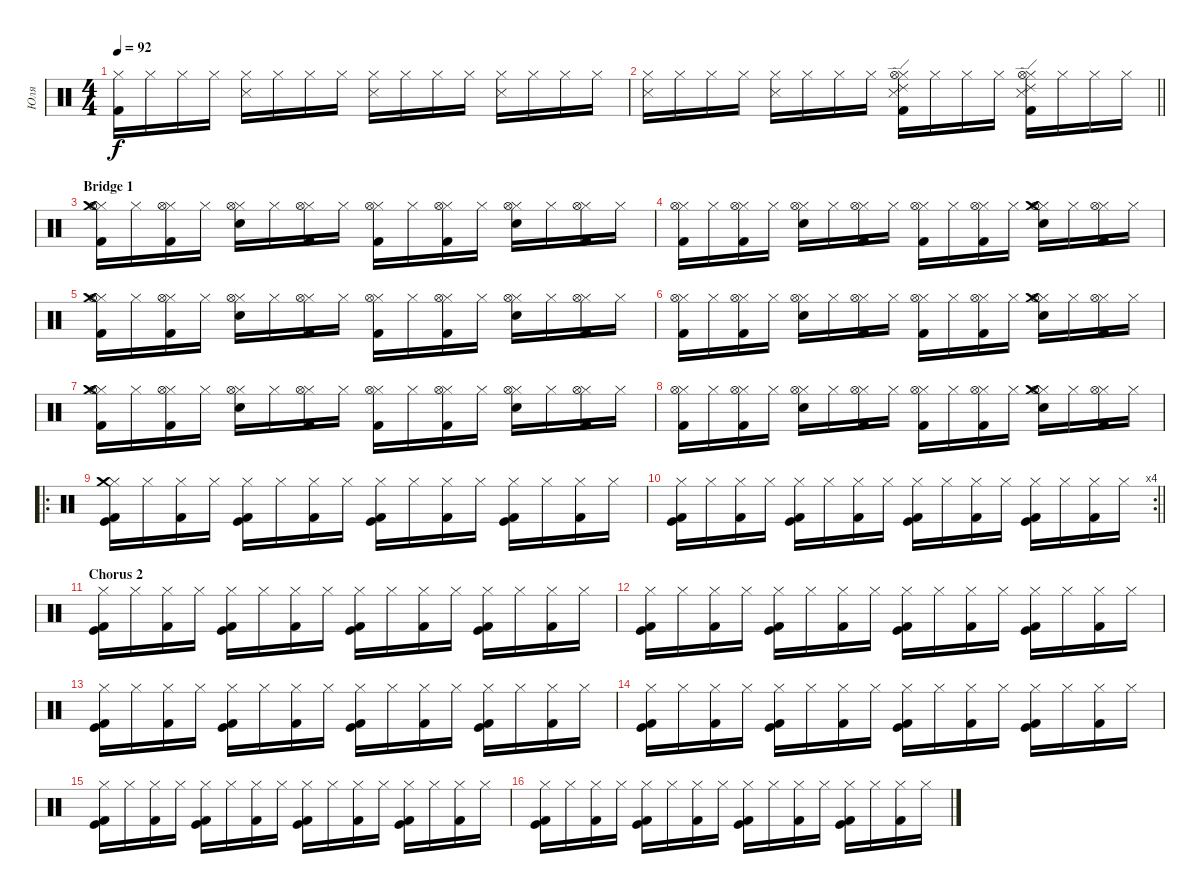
\track ("Юля" "Юля") {instrument percussion}
\staff {score}
\articulation defaults
\ts (4 4)
\tempo 92
\clef neutral
\ks c
("Hi-Hat (closed)" "Kick (hit) 2").16{dy f} "Hi-Hat (closed)".16 "Hi-Hat (closed)".16 "Hi-Hat (closed)".16 ("Hi-Hat (closed)" "Snare (side stick) 3").16 "Hi-Hat (closed)".16 "Hi-Hat (closed)".16 "Hi-Hat (closed)".16 ("Hi-Hat (closed)" "Snare (side stick) 3").16 "Hi-Hat (closed)".16 "Hi-Hat (closed)".16 "Hi-Hat (closed)".16 ("Hi-Hat (closed)" "Snare (side stick) 3").16 "Hi-Hat (closed)".16 "Hi-Hat (closed)".16 "Hi-Hat (closed)".16 |
\barLineRight lightlight
("Hi-Hat (closed)" "Snare (side stick) 3").16 "Hi-Hat (closed)".16 "Hi-Hat (closed)".16 "Hi-Hat (closed)".16 ("Hi-Hat (closed)" "Snare (side stick) 3").16 "Hi-Hat (closed)".16 "Hi-Hat (closed)".16 "Hi-Hat (closed)".16 ("Hi-Hat (closed)" "Ride (edge) 2" "Snare (side stick) 3" "Hi-Hat (open)" "Kick (hit) 2").16 "Hi-Hat (closed)".16 "Hi-Hat (closed)".16 "Hi-Hat (closed)".16 ("Hi-Hat (closed)" "Ride (edge) 2" "Snare (side stick) 3" "Hi-Hat (open)" "Kick (hit) 2").16 "Hi-Hat (closed)".16 "Hi-Hat (closed)".16 "Hi-Hat (closed)".16 |
\section ("" "Bridge 1")
("Hi-Hat (closed)" "Crash medium (hit)" "Hi-Hat (open)" "Kick (hit) 2").16 "Hi-Hat (closed)".16 ("Hi-Hat (closed)" "Hi-Hat (open)" "Kick (hit) 2").16 "Hi-Hat (closed)".16 ("Hi-Hat (closed)" "Snare (hit) 2" "Hi-Hat (open)").16 "Hi-Hat (closed)".16 ("Hi-Hat (closed)" "Hi-Hat (open)" "Kick (hit) 2").16 "Hi-Hat (closed)".16 ("Hi-Hat (closed)" "Hi-Hat (open)" "Kick (hit) 2").16 "Hi-Hat (closed)".16 ("Hi-Hat (closed)" "Hi-Hat (open)" "Kick (hit) 2").16 "Hi-Hat (closed)".16 ("Hi-Hat (closed)" "Snare (hit) 2" "Hi-Hat (open)").16 "Hi-Hat (closed)".16 ("Hi-Hat (closed)" "Hi-Hat (open)" "Kick (hit) 2").16 "Hi-Hat (closed)".16 |
("Hi-Hat (closed)" "Hi-Hat (open)" "Kick (hit) 2").16 "Hi-Hat (closed)".16 ("Hi-Hat (closed)" "Hi-Hat (open)" "Kick (hit) 2").16 "Hi-Hat (closed)".16 ("Hi-Hat (closed)" "Snare (hit) 2" "Hi-Hat (open)").16 "Hi-Hat (closed)".16 ("Hi-Hat (closed)" "Hi-Hat (open)" "Kick (hit) 2").16 "Hi-Hat (closed)".16 ("Hi-Hat (closed)" "Hi-Hat (open)" "Kick (hit) 2").16 "Hi-Hat (closed)".16 ("Hi-Hat (closed)" "Hi-Hat (open)" "Kick (hit) 2").16 "Hi-Hat (closed)".16 ("Hi-Hat (closed)" "Snare (hit) 2" "Hi-Hat (open)" "Crash medium (hit)").16 "Hi-Hat (closed)".16 ("Hi-Hat (closed)" "Hi-Hat (open)" "Kick (hit) 2").16 "Hi-Hat (closed)".16 |
("Hi-Hat (closed)" "Crash medium (hit)" "Hi-Hat (open)" "Kick (hit) 2").16 "Hi-Hat (closed)".16 ("Hi-Hat (closed)" "Hi-Hat (open)" "Kick (hit) 2").16 "Hi-Hat (closed)".16 ("Hi-Hat (closed)" "Snare (hit) 2" "Hi-Hat (open)").16 "Hi-Hat (closed)".16 ("Hi-Hat (closed)" "Hi-Hat (open)" "Kick (hit) 2").16 "Hi-Hat (closed)".16 ("Hi-Hat (closed)" "Hi-Hat (open)" "Kick (hit) 2").16 "Hi-Hat (closed)".16 ("Hi-Hat (closed)" "Hi-Hat (open)" "Kick (hit) 2").16 "Hi-Hat (closed)".16 ("Hi-Hat (closed)" "Snare (hit) 2" "Hi-Hat (open)").16 "Hi-Hat (closed)".16 ("Hi-Hat (closed)" "Hi-Hat (open)" "Kick (hit) 2").16 "Hi-Hat (closed)".16 |
("Hi-Hat (closed)" "Hi-Hat (open)" "Kick (hit) 2").16 "Hi-Hat (closed)".16 ("Hi-Hat (closed)" "Hi-Hat (open)" "Kick (hit) 2").16 "Hi-Hat (closed)".16 ("Hi-Hat (closed)" "Snare (hit) 2" "Hi-Hat (open)").16 "Hi-Hat (closed)".16 ("Hi-Hat (closed)" "Hi-Hat (open)" "Kick (hit) 2").16 "Hi-Hat (closed)".16 ("Hi-Hat (closed)" "Hi-Hat (open)" "Kick (hit) 2").16 "Hi-Hat (closed)".16 ("Hi-Hat (closed)" "Hi-Hat (open)" "Kick (hit) 2").16 "Hi-Hat (closed)".16 ("Hi-Hat (closed)" "Snare (hit) 2" "Hi-Hat (open)" "Crash medium (hit)").16 "Hi-Hat (closed)".16 ("Hi-Hat (closed)" "Hi-Hat (open)" "Kick (hit) 2").16 "Hi-Hat (closed)".16 |
("Hi-Hat (closed)" "Crash medium (hit)" "Hi-Hat (open)" "Kick (hit) 2").16 "Hi-Hat (closed)".16 ("Hi-Hat (closed)" "Hi-Hat (open)" "Kick (hit) 2").16 "Hi-Hat (closed)".16 ("Hi-Hat (closed)" "Snare (hit) 2" "Hi-Hat (open)").16 "Hi-Hat (closed)".16 ("Hi-Hat (closed)" "Hi-Hat (open)" "Kick (hit) 2").16 "Hi-Hat (closed)".16 ("Hi-Hat (closed)" "Hi-Hat (open)" "Kick (hit) 2").16 "Hi-Hat (closed)".16 ("Hi-Hat (closed)" "Hi-Hat (open)" "Kick (hit) 2").16 "Hi-Hat (closed)".16 ("Hi-Hat (closed)" "Snare (hit) 2" "Hi-Hat (open)").16 "Hi-Hat (closed)".16 ("Hi-Hat (closed)" "Hi-Hat (open)" "Kick (hit) 2").16 "Hi-Hat (closed)".16 |
("Hi-Hat (closed)" "Hi-Hat (open)" "Kick (hit) 2").16 "Hi-Hat (closed)".16 ("Hi-Hat (closed)" "Hi-Hat (open)" "Kick (hit) 2").16 "Hi-Hat (closed)".16 ("Hi-Hat (closed)" "Snare (hit) 2" "Hi-Hat (open)").16 "Hi-Hat (closed)".16 ("Hi-Hat (closed)" "Hi-Hat (open)" "Kick (hit) 2").16 "Hi-Hat (closed)".16 ("Hi-Hat (closed)" "Hi-Hat (open)" "Kick (hit) 2").16 "Hi-Hat (closed)".16 ("Hi-Hat (closed)" "Hi-Hat (open)" "Kick (hit) 2").16 "Hi-Hat (closed)".16 ("Hi-Hat (closed)" "Snare (hit) 2" "Hi-Hat (open)" "Crash medium (hit)").16 "Hi-Hat (closed)".16 ("Hi-Hat (closed)" "Hi-Hat (open)" "Kick (hit) 2").16 "Hi-Hat (closed)".16 |
\ro
("Hi-Hat (closed)" "Crash medium (hit)" "Kick (hit)" "Kick (hit) 2").16 "Hi-Hat (closed)".16 ("Hi-Hat (closed)" "Kick (hit) 2").16 "Hi-Hat (closed)".16 ("Hi-Hat (closed)" "Kick (hit)" "Kick (hit) 2").16 "Hi-Hat (closed)".16 ("Hi-Hat (closed)" "Kick (hit) 2").16 "Hi-Hat (closed)".16 ("Hi-Hat (closed)" "Kick (hit)" "Kick (hit) 2").16 "Hi-Hat (closed)".16 ("Hi-Hat (closed)" "Kick (hit) 2").16 "Hi-Hat (closed)".16 ("Hi-Hat (closed)" "Kick (hit)" "Kick (hit) 2").16 "Hi-Hat (closed)".16 ("Hi-Hat (closed)" "Kick (hit) 2").16 "Hi-Hat (closed)".16 |
\rc 4
\barLineRight lightlight
("Hi-Hat (closed)" "Kick (hit)" "Kick (hit) 2").16 "Hi-Hat (closed)".16 ("Hi-Hat (closed)" "Kick (hit) 2").16 "Hi-Hat (closed)".16 ("Hi-Hat (closed)" "Kick (hit)" "Kick (hit) 2").16 "Hi-Hat (closed)".16 ("Hi-Hat (closed)" "Kick (hit) 2").16 "Hi-Hat (closed)".16 ("Hi-Hat (closed)" "Kick (hit)" "Kick (hit) 2").16 "Hi-Hat (closed)".16 ("Hi-Hat (closed)" "Kick (hit) 2").16 "Hi-Hat (closed)".16 ("Hi-Hat (closed)" "Kick (hit)" "Kick (hit) 2").16 "Hi-Hat (closed)".16 ("Hi-Hat (closed)" "Kick (hit) 2").16 "Hi-Hat (closed)".16 |
\section ("" "Chorus 2")
("Hi-Hat (closed)" "Kick (hit)" "Kick (hit) 2").16 "Hi-Hat (closed)".16 ("Hi-Hat (closed)" "Kick (hit) 2").16 "Hi-Hat (closed)".16 ("Hi-Hat (closed)" "Kick (hit)" "Kick (hit) 2").16 "Hi-Hat (closed)".16 ("Hi-Hat (closed)" "Kick (hit) 2").16 "Hi-Hat (closed)".16 ("Hi-Hat (closed)" "Kick (hit)" "Kick (hit) 2").16 "Hi-Hat (closed)".16 ("Hi-Hat (closed)" "Kick (hit) 2").16 "Hi-Hat (closed)".16 ("Hi-Hat (closed)" "Kick (hit)" "Kick (hit) 2").16 "Hi-Hat (closed)".16 ("Hi-Hat (closed)" "Kick (hit) 2").16 "Hi-Hat (closed)".16 |
("Hi-Hat (closed)" "Kick (hit)" "Kick (hit) 2").16 "Hi-Hat (closed)".16 ("Hi-Hat (closed)" "Kick (hit) 2").16 "Hi-Hat (closed)".16 ("Hi-Hat (closed)" "Kick (hit)" "Kick (hit) 2").16 "Hi-Hat (closed)".16 ("Hi-Hat (closed)" "Kick (hit) 2").16 "Hi-Hat (closed)".16 ("Hi-Hat (closed)" "Kick (hit)" "Kick (hit) 2").16 "Hi-Hat (closed)".16 ("Hi-Hat (closed)" "Kick (hit) 2").16 "Hi-Hat (closed)".16 ("Hi-Hat (closed)" "Kick (hit)" "Kick (hit) 2").16 "Hi-Hat (closed)".16 ("Hi-Hat (closed)" "Kick (hit) 2").16 "Hi-Hat (closed)".16 |
("Hi-Hat (closed)" "Kick (hit)" "Kick (hit) 2").16 "Hi-Hat (closed)".16 ("Hi-Hat (closed)" "Kick (hit) 2").16 "Hi-Hat (closed)".16 ("Hi-Hat (closed)" "Kick (hit)" "Kick (hit) 2").16 "Hi-Hat (closed)".16 ("Hi-Hat (closed)" "Kick (hit) 2").16 "Hi-Hat (closed)".16 ("Hi-Hat (closed)" "Kick (hit)" "Kick (hit) 2").16 "Hi-Hat (closed)".16 ("Hi-Hat (closed)" "Kick (hit) 2").16 "Hi-Hat (closed)".16 ("Hi-Hat (closed)" "Kick (hit)" "Kick (hit) 2").16 "Hi-Hat (closed)".16 ("Hi-Hat (closed)" "Kick (hit) 2").16 "Hi-Hat (closed)".16 |
("Hi-Hat (closed)" "Kick (hit)" "Kick (hit) 2").16 "Hi-Hat (closed)".16 ("Hi-Hat (closed)" "Kick (hit) 2").16 "Hi-Hat (closed)".16 ("Hi-Hat (closed)" "Kick (hit)" "Kick (hit) 2").16 "Hi-Hat (closed)".16 ("Hi-Hat (closed)" "Kick (hit) 2").16 "Hi-Hat (closed)".16 ("Hi-Hat (closed)" "Kick (hit)" "Kick (hit) 2").16 "Hi-Hat (closed)".16 ("Hi-Hat (closed)" "Kick (hit) 2").16 "Hi-Hat (closed)".16 ("Hi-Hat (closed)" "Kick (hit)" "Kick (hit) 2").16 "Hi-Hat (closed)".16 ("Hi-Hat (closed)" "Kick (hit) 2").16 "Hi-Hat (closed)".16 |
("Hi-Hat (closed)" "Kick (hit)" "Kick (hit) 2").16 "Hi-Hat (closed)".16 ("Hi-Hat (closed)" "Kick (hit) 2").16 "Hi-Hat (closed)".16 ("Hi-Hat (closed)" "Kick (hit)" "Kick (hit) 2").16 "Hi-Hat (closed)".16 ("Hi-Hat (closed)" "Kick (hit) 2").16 "Hi-Hat (closed)".16 ("Hi-Hat (closed)" "Kick (hit)" "Kick (hit) 2").16 "Hi-Hat (closed)".16 ("Hi-Hat (closed)" "Kick (hit) 2").16 "Hi-Hat (closed)".16 ("Hi-Hat (closed)" "Kick (hit)" "Kick (hit) 2").16 "Hi-Hat (closed)".16 ("Hi-Hat (closed)" "Kick (hit) 2").16 "Hi-Hat (closed)".16 |
("Hi-Hat (closed)" "Kick (hit)" "Kick (hit) 2").16 "Hi-Hat (closed)".16 ("Hi-Hat (closed)" "Kick (hit) 2").16 "Hi-Hat (closed)".16 ("Hi-Hat (closed)" "Kick (hit)" "Kick (hit) 2").16 "Hi-Hat (closed)".16 ("Hi-Hat (closed)" "Kick (hit) 2").16 "Hi-Hat (closed)".16 ("Hi-Hat (closed)" "Kick (hit)" "Kick (hit) 2").16 "Hi-Hat (closed)".16 ("Hi-Hat (closed)" "Kick (hit) 2").16 "Hi-Hat (closed)".16 ("Hi-Hat (closed)" "Kick (hit)" "Kick (hit) 2").16 "Hi-Hat (closed)".16 ("Hi-Hat (closed)" "Kick (hit) 2").16 "Hi-Hat (closed)".16
